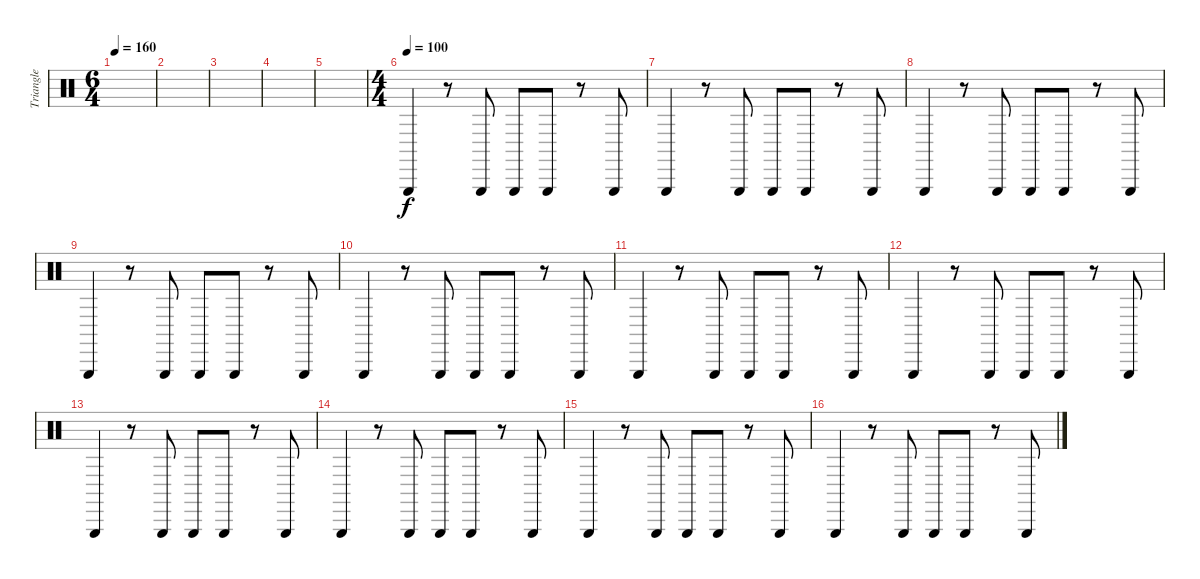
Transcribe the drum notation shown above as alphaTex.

\track ("Triangle" "Triangle") {instrument percussion}
\staff {score}
\articulation defaults
\ts (6 4)
\tempo 160
\clef neutral
\ks c
|
|
|
|
|
\ts (4 4)
\tempo (100)
"Triangle (hit)".4 r.8 "Triangle (hit)".8 "Triangle (hit)".8 "Triangle (hit)".8 r.8 "Triangle (hit)".8 |
"Triangle (hit)".4 r.8 "Triangle (hit)".8 "Triangle (hit)".8 "Triangle (hit)".8 r.8 "Triangle (hit)".8 |
"Triangle (hit)".4 r.8 "Triangle (hit)".8 "Triangle (hit)".8 "Triangle (hit)".8 r.8 "Triangle (hit)".8 |
"Triangle (hit)".4 r.8 "Triangle (hit)".8 "Triangle (hit)".8 "Triangle (hit)".8 r.8 "Triangle (hit)".8 |
"Triangle (hit)".4 r.8 "Triangle (hit)".8 "Triangle (hit)".8 "Triangle (hit)".8 r.8 "Triangle (hit)".8 |
"Triangle (hit)".4 r.8 "Triangle (hit)".8 "Triangle (hit)".8 "Triangle (hit)".8 r.8 "Triangle (hit)".8 |
"Triangle (hit)".4 r.8 "Triangle (hit)".8 "Triangle (hit)".8 "Triangle (hit)".8 r.8 "Triangle (hit)".8 |
"Triangle (hit)".4 r.8 "Triangle (hit)".8 "Triangle (hit)".8 "Triangle (hit)".8 r.8 "Triangle (hit)".8 |
"Triangle (hit)".4 r.8 "Triangle (hit)".8 "Triangle (hit)".8 "Triangle (hit)".8 r.8 "Triangle (hit)".8 |
"Triangle (hit)".4 r.8 "Triangle (hit)".8 "Triangle (hit)".8 "Triangle (hit)".8 r.8 "Triangle (hit)".8 |
"Triangle (hit)".4 r.8 "Triangle (hit)".8 "Triangle (hit)".8 "Triangle (hit)".8 r.8 "Triangle (hit)".8
